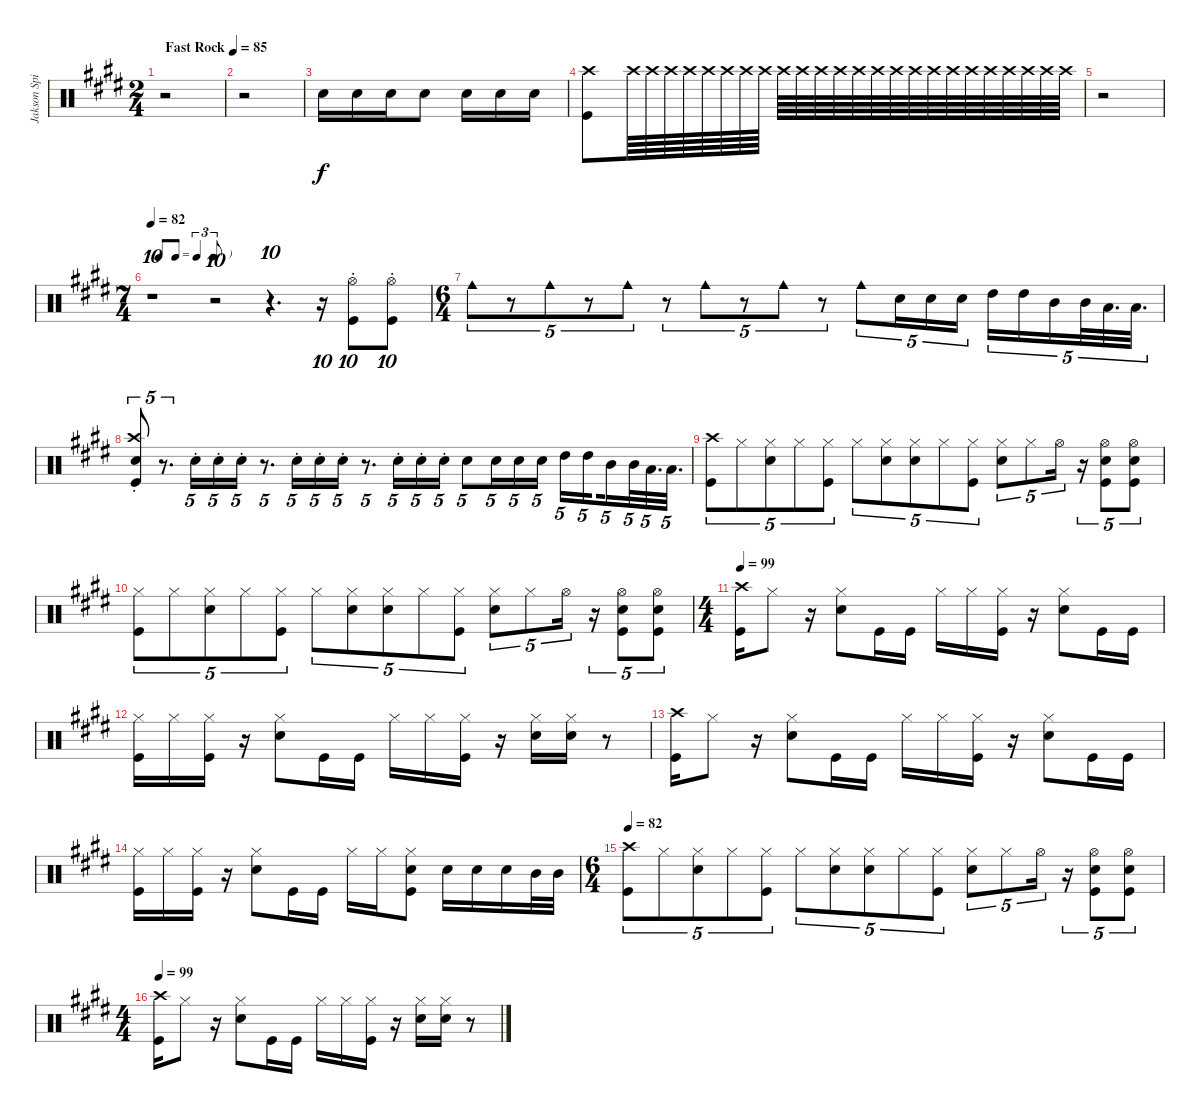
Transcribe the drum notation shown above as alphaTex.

\track ("Jakson Spires Drums" "Jakson Spi") {instrument percussion}
\staff {score}
\articulation defaults
\ts (2 4)
\tempo (85 "Fast Rock")
\clef neutral
\ks e
r.2{dy f} |
r.2 |
"Snare (hit) 2".16 "Snare (hit) 2".16 "Snare (hit) 2".16 "Snare (hit) 2".8 "Snare (hit) 2".16 "Snare (hit) 2".16 "Snare (hit) 2".16 |
("Crash high (hit)" "Kick (hit)").8 "Crash high (hit)".64 "Crash high (hit)".64 "Crash high (hit)".64 "Crash high (hit)".64 "Crash high (hit)".64 "Crash high (hit)".64 "Crash high (hit)".64 "Crash high (hit)".64 "Crash high (hit)".64 "Crash high (hit)".64 "Crash high (hit)".64 "Crash high (hit)".64 "Crash high (hit)".64 "Crash high (hit)".64 "Crash high (hit)".64 "Crash high (hit)".64 "Crash high (hit)".64 "Crash high (hit)".64 "Crash high (hit)".64 "Crash high (hit)".64 "Crash high (hit)".64 "Crash high (hit)".64 "Crash high (hit)".64 "Crash high (hit)".64 |
r.2 |
\ts (7 4)
\tf triplet8th
\tempo 82
r.1{tu (10 8)} r.2{tu (10 8)} r.4{d tu (10 8)} r.16{tu (10 8)} ("Hi-Hat (open)"{st} "Kick (hit)").8{tu (10 8)} ("Hi-Hat (open)"{st} "Kick (hit)").8{tu (10 8)} |
\ts (6 4)
"Cowbell medium (hit)".8{tu (5 4)} r.8{tu (5 4)} "Cowbell medium (hit)".8{tu (5 4)} r.8{tu (5 4)} "Cowbell medium (hit)".8{tu (5 4)} r.8{tu (5 4)} "Cowbell medium (hit)".8{tu (5 4)} r.8{tu (5 4)} "Cowbell medium (hit)".8{tu (5 4)} r.8{tu (5 4)} "Cowbell medium (hit)".8{tu (5 4)} "Snare (hit) 2".16{tu (5 4)} "Snare (hit) 2".16{tu (5 4)} "Snare (hit) 2".16{tu (5 4) beam splitsecondary} "High Tom (hit)".16{tu (5 4)} "High Tom (hit)".16{tu (5 4)} "Mid Tom (hit)".16{tu (5 4)} "Mid Tom (hit)".32{tu (5 4)} "Low Tom (hit)".32{d tu (5 4)} "Low Floor Tom (hit)".32{d tu (5 4)} |
("Crash high (hit)" "Snare (hit) 2" "Kick (hit)"{st}).8{tu (5 4)} r.8{d tu (5 4)} "Snare (hit) 2"{st}.16{tu (5 4)} "Snare (hit) 2"{st}.16{tu (5 4)} "Snare (hit) 2"{st}.16{tu (5 4)} r.8{d tu (5 4)} "Snare (hit) 2"{st}.16{tu (5 4)} "Snare (hit) 2"{st}.16{tu (5 4)} "Snare (hit) 2"{st}.16{tu (5 4)} r.8{d tu (5 4)} "Snare (hit) 2"{st}.16{tu (5 4)} "Snare (hit) 2"{st}.16{tu (5 4)} "Snare (hit) 2"{st}.16{tu (5 4)} "Snare (hit) 2".8{tu (5 4)} "Snare (hit) 2".16{tu (5 4)} "Snare (hit) 2".16{tu (5 4)} "Snare (hit) 2".16{tu (5 4)} "High Tom (hit)".16{tu (5 4)} "High Tom (hit)".16{tu (5 4) beam splitsecondary} "Mid Tom (hit)".16{tu (5 4)} "Mid Tom (hit)".32{tu (5 4)} "Low Tom (hit)".32{d tu (5 4)} "Low Floor Tom (hit)".32{d tu (5 4)} |
("Crash high (hit)" "Kick (hit)").8{tu (5 4)} "Hi-Hat (closed)".8{tu (5 4)} ("Hi-Hat (closed)" "Snare (hit) 2").8{tu (5 4)} "Hi-Hat (closed)".8{tu (5 4)} ("Hi-Hat (closed)" "Kick (hit)").8{tu (5 4)} "Hi-Hat (closed)".8{tu (5 4)} ("Hi-Hat (closed)" "Snare (hit) 2").8{tu (5 4)} ("Hi-Hat (closed)" "Snare (hit) 2").8{tu (5 4)} "Hi-Hat (closed)".8{tu (5 4)} ("Hi-Hat (closed)" "Kick (hit)").8{tu (5 4)} ("Hi-Hat (closed)" "Snare (hit) 2").8{tu (5 4)} "Hi-Hat (closed)".8{tu (5 4)} "Hi-Hat (open)".16{tu (5 4)} r.16{tu (5 4)} ("Hi-Hat (open)" "Snare (hit) 2" "Kick (hit)").8{tu (5 4)} ("Hi-Hat (open)" "Snare (hit) 2" "Kick (hit)").8{tu (5 4)} |
("Hi-Hat (closed)" "Kick (hit)").8{tu (5 4)} "Hi-Hat (closed)".8{tu (5 4)} ("Hi-Hat (closed)" "Snare (hit) 2").8{tu (5 4)} "Hi-Hat (closed)".8{tu (5 4)} ("Hi-Hat (closed)" "Kick (hit)").8{tu (5 4)} "Hi-Hat (closed)".8{tu (5 4)} ("Hi-Hat (closed)" "Snare (hit) 2").8{tu (5 4)} ("Hi-Hat (closed)" "Snare (hit) 2").8{tu (5 4)} "Hi-Hat (closed)".8{tu (5 4)} ("Hi-Hat (closed)" "Kick (hit)").8{tu (5 4)} ("Hi-Hat (closed)" "Snare (hit) 2").8{tu (5 4)} "Hi-Hat (closed)".8{tu (5 4)} "Hi-Hat (open)".16{tu (5 4)} r.16{tu (5 4)} ("Hi-Hat (open)" "Snare (hit) 2" "Kick (hit)").8{tu (5 4)} ("Hi-Hat (open)" "Snare (hit) 2" "Kick (hit)").8{tu (5 4)} |
\ts (4 4)
\tempo 100
\tempo 99
("Crash high (hit)" "Kick (hit)").16 "Hi-Hat (closed)".8 r.16 ("Hi-Hat (closed)" "Snare (hit) 2").8 "Kick (hit)".16 "Kick (hit)".16 "Hi-Hat (closed)".16 "Hi-Hat (closed)".16 ("Hi-Hat (closed)" "Kick (hit)").16 r.16 ("Hi-Hat (closed)" "Snare (hit) 2").8 "Kick (hit)".16 "Kick (hit)".16 |
("Hi-Hat (closed)" "Kick (hit)").16 "Hi-Hat (closed)".16 ("Hi-Hat (closed)" "Kick (hit)").16 r.16 ("Hi-Hat (closed)" "Snare (hit) 2").8 "Kick (hit)".16 "Kick (hit)".16 "Hi-Hat (closed)".16 "Hi-Hat (closed)".16 ("Hi-Hat (closed)" "Kick (hit)").16 r.16 ("Hi-Hat (closed)" "Snare (hit) 2").16 ("Hi-Hat (closed)" "Snare (hit) 2").16 r.8 |
("Crash high (hit)" "Kick (hit)").16 "Hi-Hat (closed)".8 r.16 ("Hi-Hat (closed)" "Snare (hit) 2").8 "Kick (hit)".16 "Kick (hit)".16 "Hi-Hat (closed)".16 "Hi-Hat (closed)".16 ("Hi-Hat (closed)" "Kick (hit)").16 r.16 ("Hi-Hat (closed)" "Snare (hit) 2").8 "Kick (hit)".16 "Kick (hit)".16 |
("Hi-Hat (closed)" "Kick (hit)").16 "Hi-Hat (closed)".16 ("Hi-Hat (closed)" "Kick (hit)").16 r.16 ("Hi-Hat (closed)" "Snare (hit) 2").8 "Kick (hit)".16 "Kick (hit)".16 "Hi-Hat (closed)".16 "Hi-Hat (closed)".16 ("Hi-Hat (closed)" "Snare (hit) 2" "Kick (hit)").8 "Snare (hit) 2".16 "Snare (hit) 2".16 "Snare (hit) 2".16 "Mid Tom (hit)".32 "Mid Tom (hit)".32 |
\ts (6 4)
\tempo 82
("Crash high (hit)" "Kick (hit)").8{tu (5 4)} "Hi-Hat (closed)".8{tu (5 4)} ("Hi-Hat (closed)" "Snare (hit) 2").8{tu (5 4)} "Hi-Hat (closed)".8{tu (5 4)} ("Hi-Hat (closed)" "Kick (hit)").8{tu (5 4)} "Hi-Hat (closed)".8{tu (5 4)} ("Hi-Hat (closed)" "Snare (hit) 2").8{tu (5 4)} ("Hi-Hat (closed)" "Snare (hit) 2").8{tu (5 4)} "Hi-Hat (closed)".8{tu (5 4)} ("Hi-Hat (closed)" "Kick (hit)").8{tu (5 4)} ("Hi-Hat (closed)" "Snare (hit) 2").8{tu (5 4)} "Hi-Hat (closed)".8{tu (5 4)} "Hi-Hat (open)".16{tu (5 4)} r.16{tu (5 4)} ("Hi-Hat (open)" "Snare (hit) 2" "Kick (hit)").8{tu (5 4)} ("Hi-Hat (open)" "Snare (hit) 2" "Kick (hit)").8{tu (5 4)} |
\ts (4 4)
\tempo 100
\tempo 99
("Crash high (hit)" "Kick (hit)").16 "Hi-Hat (closed)".8 r.16 ("Hi-Hat (closed)" "Snare (hit) 2").8 "Kick (hit)".16 "Kick (hit)".16 "Hi-Hat (closed)".16 "Hi-Hat (closed)".16 ("Hi-Hat (closed)" "Kick (hit)").16 r.16 ("Hi-Hat (closed)" "Snare (hit) 2").16 ("Hi-Hat (closed)" "Snare (hit) 2").16 r.8
